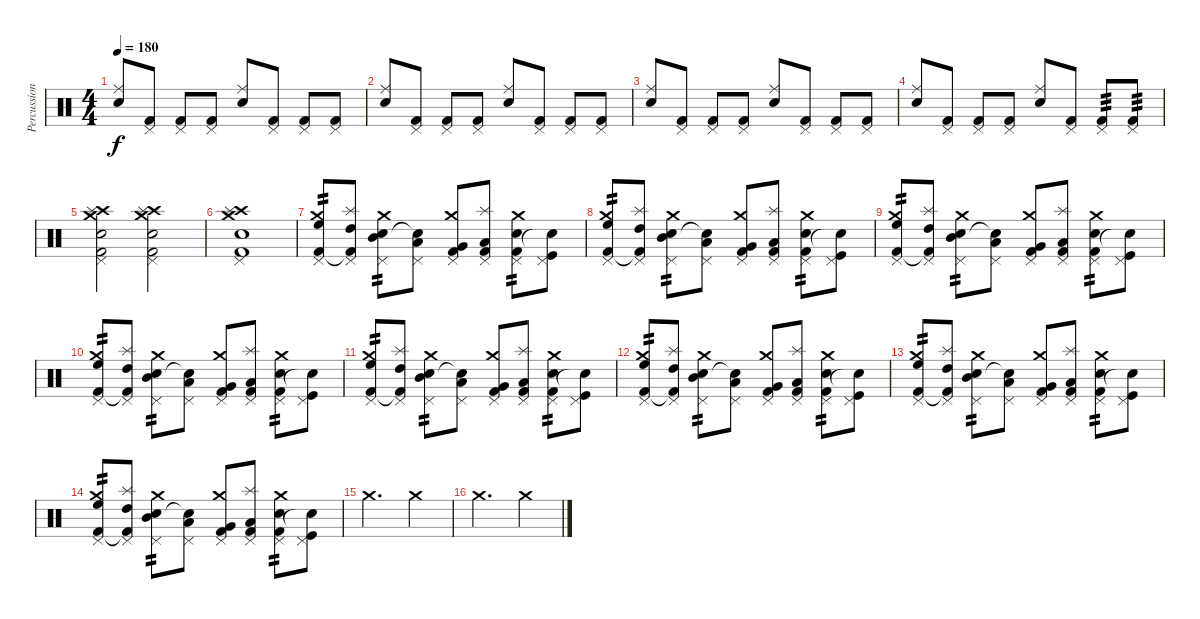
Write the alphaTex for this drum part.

\track ("Percussion" "Percussion") {instrument percussion}
\staff
\articulation defaults
\ts (4 4)
\tempo 180
\clef neutral
\ks c
("Ride (middle)" "Snare (hit) 2").8{dy f} ("Pedal Hi-Hat (hit)" "Kick (hit) 2").8 ("Pedal Hi-Hat (hit)" "Kick (hit) 2").8 ("Pedal Hi-Hat (hit)" "Kick (hit) 2").8 ("Ride (middle)" "Snare (hit) 2").8 ("Pedal Hi-Hat (hit)" "Kick (hit) 2").8 ("Pedal Hi-Hat (hit)" "Kick (hit) 2").8 ("Pedal Hi-Hat (hit)" "Kick (hit) 2").8 |
("Ride (middle)" "Snare (hit) 2").8 ("Pedal Hi-Hat (hit)" "Kick (hit) 2").8 ("Pedal Hi-Hat (hit)" "Kick (hit) 2").8 ("Pedal Hi-Hat (hit)" "Kick (hit) 2").8 ("Ride (middle)" "Snare (hit) 2").8 ("Pedal Hi-Hat (hit)" "Kick (hit) 2").8 ("Pedal Hi-Hat (hit)" "Kick (hit) 2").8 ("Pedal Hi-Hat (hit)" "Kick (hit) 2").8 |
("Ride (middle)" "Snare (hit) 2").8 ("Pedal Hi-Hat (hit)" "Kick (hit) 2").8 ("Pedal Hi-Hat (hit)" "Kick (hit) 2").8 ("Pedal Hi-Hat (hit)" "Kick (hit) 2").8 ("Ride (middle)" "Snare (hit) 2").8 ("Pedal Hi-Hat (hit)" "Kick (hit) 2").8 ("Pedal Hi-Hat (hit)" "Kick (hit) 2").8 ("Pedal Hi-Hat (hit)" "Kick (hit) 2").8 |
("Ride (middle)" "Snare (hit) 2").8 ("Pedal Hi-Hat (hit)" "Kick (hit) 2").8 ("Pedal Hi-Hat (hit)" "Kick (hit) 2").8 ("Pedal Hi-Hat (hit)" "Kick (hit) 2").8 ("Ride (middle)" "Snare (hit) 2").8 ("Pedal Hi-Hat (hit)" "Kick (hit) 2").8 ("Pedal Hi-Hat (hit)" "Kick (hit) 2").8{tp 3} ("Pedal Hi-Hat (hit)" "Kick (hit) 2").8{tp 3} |
("Pedal Hi-Hat (hit)" "Crash high (hit)" "Crash medium (hit)" "Splash (hit)" "Snare (hit) 2" "Kick (hit) 2").2 ("Pedal Hi-Hat (hit)" "Crash high (hit)" "Crash medium (hit)" "Splash (hit)" "Snare (hit) 2" "Kick (hit) 2").2 |
("Pedal Hi-Hat (hit)" "Crash high (hit)" "Crash medium (hit)" "Splash (hit)" "Snare (hit) 2" "Kick (hit) 2").1 |
("Pedal Hi-Hat (hit)" "Crash medium (hit)" "High Floor Tom (hit)" "Kick (hit) 2").8{tp 2} ("Pedal Hi-Hat (hit)" "Splash (hit)" "High Tom (hit)" "Kick (hit) 2"{t}).8 ("Pedal Hi-Hat (hit)" "Crash medium (hit)" "Mid Tom (hit)" "Snare (hit) 2").8{tp 2} ("Pedal Hi-Hat (hit)" "Low Tom (hit)" "Snare (hit) 2"{t}).8 ("Pedal Hi-Hat (hit)" "Crash medium (hit)" "Very Low Tom (hit)" "Kick (hit) 2").8 ("Pedal Hi-Hat (hit)" "Splash (hit)" "Low Floor Tom (hit)" "Kick (hit) 2").8 ("Pedal Hi-Hat (hit)" "Crash medium (hit)" "Kick (hit) 2" "Snare (hit) 2").8{tp 2} ("Pedal Hi-Hat (hit)" "Kick (hit)" "Snare (hit) 2"{t}).8 |
("Pedal Hi-Hat (hit)" "Crash medium (hit)" "High Floor Tom (hit)" "Kick (hit) 2").8{tp 2} ("Pedal Hi-Hat (hit)" "Splash (hit)" "High Tom (hit)" "Kick (hit) 2"{t}).8 ("Pedal Hi-Hat (hit)" "Crash medium (hit)" "Mid Tom (hit)" "Snare (hit) 2").8{tp 2} ("Pedal Hi-Hat (hit)" "Low Tom (hit)" "Snare (hit) 2"{t}).8 ("Pedal Hi-Hat (hit)" "Crash medium (hit)" "Very Low Tom (hit)" "Kick (hit) 2").8 ("Pedal Hi-Hat (hit)" "Splash (hit)" "Low Floor Tom (hit)" "Kick (hit) 2").8 ("Pedal Hi-Hat (hit)" "Crash medium (hit)" "Kick (hit) 2" "Snare (hit) 2").8{tp 2} ("Pedal Hi-Hat (hit)" "Kick (hit)" "Snare (hit) 2"{t}).8 |
("Pedal Hi-Hat (hit)" "Crash medium (hit)" "High Floor Tom (hit)" "Kick (hit) 2").8{tp 2} ("Pedal Hi-Hat (hit)" "Splash (hit)" "High Tom (hit)" "Kick (hit) 2"{t}).8 ("Pedal Hi-Hat (hit)" "Crash medium (hit)" "Mid Tom (hit)" "Snare (hit) 2").8{tp 2} ("Pedal Hi-Hat (hit)" "Low Tom (hit)" "Snare (hit) 2"{t}).8 ("Pedal Hi-Hat (hit)" "Crash medium (hit)" "Very Low Tom (hit)" "Kick (hit) 2").8 ("Pedal Hi-Hat (hit)" "Splash (hit)" "Low Floor Tom (hit)" "Kick (hit) 2").8 ("Pedal Hi-Hat (hit)" "Crash medium (hit)" "Kick (hit) 2" "Snare (hit) 2").8{tp 2} ("Pedal Hi-Hat (hit)" "Kick (hit)" "Snare (hit) 2"{t}).8 |
("Pedal Hi-Hat (hit)" "Crash medium (hit)" "High Floor Tom (hit)" "Kick (hit) 2").8{tp 2} ("Pedal Hi-Hat (hit)" "Splash (hit)" "High Tom (hit)" "Kick (hit) 2"{t}).8 ("Pedal Hi-Hat (hit)" "Crash medium (hit)" "Mid Tom (hit)" "Snare (hit) 2").8{tp 2} ("Pedal Hi-Hat (hit)" "Low Tom (hit)" "Snare (hit) 2"{t}).8 ("Pedal Hi-Hat (hit)" "Crash medium (hit)" "Very Low Tom (hit)" "Kick (hit) 2").8 ("Pedal Hi-Hat (hit)" "Splash (hit)" "Low Floor Tom (hit)" "Kick (hit) 2").8 ("Pedal Hi-Hat (hit)" "Crash medium (hit)" "Kick (hit) 2" "Snare (hit) 2").8{tp 2} ("Pedal Hi-Hat (hit)" "Kick (hit)" "Snare (hit) 2"{t}).8 |
("Pedal Hi-Hat (hit)" "Crash medium (hit)" "High Floor Tom (hit)" "Kick (hit) 2").8{tp 2} ("Pedal Hi-Hat (hit)" "Splash (hit)" "High Tom (hit)" "Kick (hit) 2"{t}).8 ("Pedal Hi-Hat (hit)" "Crash medium (hit)" "Mid Tom (hit)" "Snare (hit) 2").8{tp 2} ("Pedal Hi-Hat (hit)" "Low Tom (hit)" "Snare (hit) 2"{t}).8 ("Pedal Hi-Hat (hit)" "Crash medium (hit)" "Very Low Tom (hit)" "Kick (hit) 2").8 ("Pedal Hi-Hat (hit)" "Splash (hit)" "Low Floor Tom (hit)" "Kick (hit) 2").8 ("Pedal Hi-Hat (hit)" "Crash medium (hit)" "Kick (hit) 2" "Snare (hit) 2").8{tp 2} ("Pedal Hi-Hat (hit)" "Kick (hit)" "Snare (hit) 2"{t}).8 |
("Pedal Hi-Hat (hit)" "Crash medium (hit)" "High Floor Tom (hit)" "Kick (hit) 2").8{tp 2} ("Pedal Hi-Hat (hit)" "Splash (hit)" "High Tom (hit)" "Kick (hit) 2"{t}).8 ("Pedal Hi-Hat (hit)" "Crash medium (hit)" "Mid Tom (hit)" "Snare (hit) 2").8{tp 2} ("Pedal Hi-Hat (hit)" "Low Tom (hit)" "Snare (hit) 2"{t}).8 ("Pedal Hi-Hat (hit)" "Crash medium (hit)" "Very Low Tom (hit)" "Kick (hit) 2").8 ("Pedal Hi-Hat (hit)" "Splash (hit)" "Low Floor Tom (hit)" "Kick (hit) 2").8 ("Pedal Hi-Hat (hit)" "Crash medium (hit)" "Kick (hit) 2" "Snare (hit) 2").8{tp 2} ("Pedal Hi-Hat (hit)" "Kick (hit)" "Snare (hit) 2"{t}).8 |
("Pedal Hi-Hat (hit)" "Crash medium (hit)" "High Floor Tom (hit)" "Kick (hit) 2").8{tp 2} ("Pedal Hi-Hat (hit)" "Splash (hit)" "High Tom (hit)" "Kick (hit) 2"{t}).8 ("Pedal Hi-Hat (hit)" "Crash medium (hit)" "Mid Tom (hit)" "Snare (hit) 2").8{tp 2} ("Pedal Hi-Hat (hit)" "Low Tom (hit)" "Snare (hit) 2"{t}).8 ("Pedal Hi-Hat (hit)" "Crash medium (hit)" "Very Low Tom (hit)" "Kick (hit) 2").8 ("Pedal Hi-Hat (hit)" "Splash (hit)" "Low Floor Tom (hit)" "Kick (hit) 2").8 ("Pedal Hi-Hat (hit)" "Crash medium (hit)" "Kick (hit) 2" "Snare (hit) 2").8{tp 2} ("Pedal Hi-Hat (hit)" "Kick (hit)" "Snare (hit) 2"{t}).8 |
("Pedal Hi-Hat (hit)" "Crash medium (hit)" "High Floor Tom (hit)" "Kick (hit) 2").8{tp 2} ("Pedal Hi-Hat (hit)" "Splash (hit)" "High Tom (hit)" "Kick (hit) 2"{t}).8 ("Pedal Hi-Hat (hit)" "Crash medium (hit)" "Mid Tom (hit)" "Snare (hit) 2").8{tp 2} ("Pedal Hi-Hat (hit)" "Low Tom (hit)" "Snare (hit) 2"{t}).8 ("Pedal Hi-Hat (hit)" "Crash medium (hit)" "Very Low Tom (hit)" "Kick (hit) 2").8 ("Pedal Hi-Hat (hit)" "Splash (hit)" "Low Floor Tom (hit)" "Kick (hit) 2").8 ("Pedal Hi-Hat (hit)" "Crash medium (hit)" "Kick (hit) 2" "Snare (hit) 2").8{tp 2} ("Pedal Hi-Hat (hit)" "Kick (hit)" "Snare (hit) 2"{t}).8 |
"Crash medium (hit)".2{d} "Crash medium (hit)".4 |
"Crash medium (hit)".2{d} "Crash medium (hit)".4
